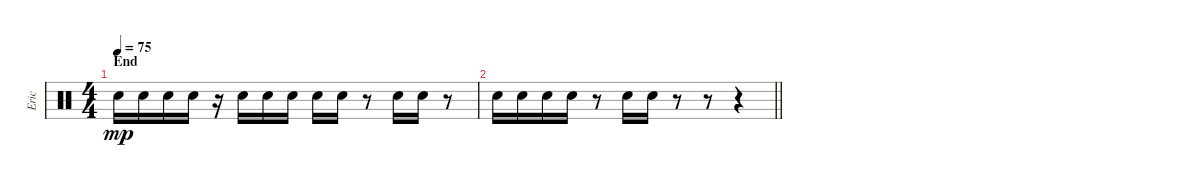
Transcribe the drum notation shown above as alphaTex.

\track ("Eric" "Eric") {instrument percussion}
\staff {score}
\articulation defaults
\ts (4 4)
\section ("" "End")
\tempo 75
\clef neutral
\ks c "Snare (hit) 2".16{dy mp} "Snare (hit) 2".16 "Snare (hit) 2".16 "Snare (hit) 2".16
r.16 "Snare (hit) 2".16 "Snare (hit) 2".16 "Snare (hit) 2".16 "Snare (hit) 2".16 "Snare (hit) 2".16 r.8 "Snare (hit) 2".16 "Snare (hit) 2".16 r.8 |
\barLineRight lightlight "Snare (hit) 2".16 "Snare (hit) 2".16 "Snare (hit) 2".16 "Snare (hit) 2".16
r.8 "Snare (hit) 2".16 "Snare (hit) 2".16 r.8 r.8 r.4
